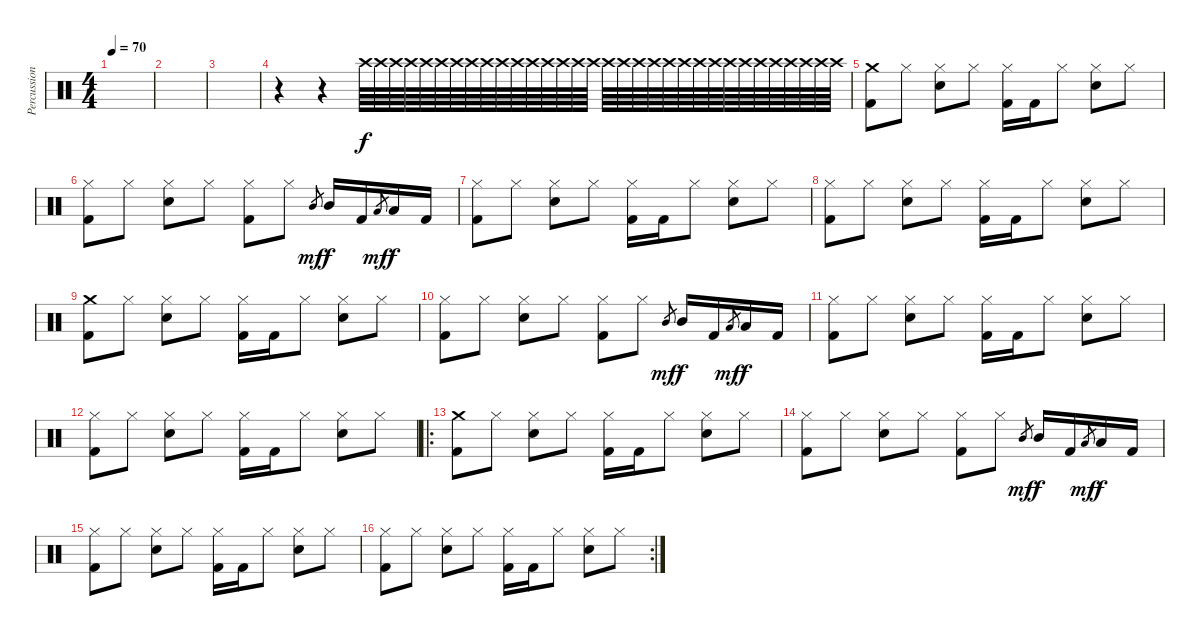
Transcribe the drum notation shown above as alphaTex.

\track ("Percussions" "Percussion") {instrument percussion}
\staff {score}
\articulation defaults
\ts (4 4)
\tempo 70
\clef neutral
\ks c
|
|
|
r.4 r.4 "Crash high (hit)".64 "Crash high (hit)".64 "Crash high (hit)".64 "Crash high (hit)".64 "Crash high (hit)".64 "Crash high (hit)".64 "Crash high (hit)".64 "Crash high (hit)".64 "Crash high (hit)".64 "Crash high (hit)".64 "Crash high (hit)".64 "Crash high (hit)".64 "Crash high (hit)".64 "Crash high (hit)".64 "Crash high (hit)".64 "Crash high (hit)".64 "Crash high (hit)".64 "Crash high (hit)".64 "Crash high (hit)".64 "Crash high (hit)".64 "Crash high (hit)".64 "Crash high (hit)".64 "Crash high (hit)".64 "Crash high (hit)".64 "Crash high (hit)".64 "Crash high (hit)".64 "Crash high (hit)".64 "Crash high (hit)".64 "Crash high (hit)".64 "Crash high (hit)".64 "Crash high (hit)".64 "Crash high (hit)".64 |
("Crash medium (hit)" "Kick (hit) 2").8 "Hi-Hat (closed)".8 ("Hi-Hat (closed)" "Snare (hit) 2").8 "Hi-Hat (closed)".8 ("Hi-Hat (closed)" "Kick (hit) 2").16 "Kick (hit) 2".16 "Hi-Hat (closed)".8 ("Hi-Hat (closed)" "Snare (hit) 2").8 "Hi-Hat (closed)".8 |
("Hi-Hat (closed)" "Kick (hit) 2").8 "Hi-Hat (closed)".8 ("Hi-Hat (closed)" "Snare (hit) 2").8 "Hi-Hat (closed)".8 ("Hi-Hat (closed)" "Kick (hit) 2").8 "Hi-Hat (closed)".8 "Mid Tom (hit)".8{gr dy mf} "Mid Tom (hit)".16{dy f} "Kick (hit) 2".16 "Low Tom (hit)".8{gr dy mf} "Low Tom (hit)".16{dy f} "Kick (hit) 2".16 |
("Hi-Hat (closed)" "Kick (hit) 2").8 "Hi-Hat (closed)".8 ("Hi-Hat (closed)" "Snare (hit) 2").8 "Hi-Hat (closed)".8 ("Hi-Hat (closed)" "Kick (hit) 2").16 "Kick (hit) 2".16 "Hi-Hat (closed)".8 ("Hi-Hat (closed)" "Snare (hit) 2").8 "Hi-Hat (closed)".8 |
("Hi-Hat (closed)" "Kick (hit) 2").8 "Hi-Hat (closed)".8 ("Hi-Hat (closed)" "Snare (hit) 2").8 "Hi-Hat (closed)".8 ("Hi-Hat (closed)" "Kick (hit) 2").16 "Kick (hit) 2".16 "Hi-Hat (closed)".8 ("Hi-Hat (closed)" "Snare (hit) 2").8 "Hi-Hat (closed)".8 |
("Crash medium (hit)" "Kick (hit) 2").8 "Hi-Hat (closed)".8 ("Hi-Hat (closed)" "Snare (hit) 2").8 "Hi-Hat (closed)".8 ("Hi-Hat (closed)" "Kick (hit) 2").16 "Kick (hit) 2".16 "Hi-Hat (closed)".8 ("Hi-Hat (closed)" "Snare (hit) 2").8 "Hi-Hat (closed)".8 |
("Hi-Hat (closed)" "Kick (hit) 2").8 "Hi-Hat (closed)".8 ("Hi-Hat (closed)" "Snare (hit) 2").8 "Hi-Hat (closed)".8 ("Hi-Hat (closed)" "Kick (hit) 2").8 "Hi-Hat (closed)".8 "Mid Tom (hit)".8{gr dy mf} "Mid Tom (hit)".16{dy f} "Kick (hit) 2".16 "Low Tom (hit)".8{gr dy mf} "Low Tom (hit)".16{dy f} "Kick (hit) 2".16 |
("Hi-Hat (closed)" "Kick (hit) 2").8 "Hi-Hat (closed)".8 ("Hi-Hat (closed)" "Snare (hit) 2").8 "Hi-Hat (closed)".8 ("Hi-Hat (closed)" "Kick (hit) 2").16 "Kick (hit) 2".16 "Hi-Hat (closed)".8 ("Hi-Hat (closed)" "Snare (hit) 2").8 "Hi-Hat (closed)".8 |
("Hi-Hat (closed)" "Kick (hit) 2").8 "Hi-Hat (closed)".8 ("Hi-Hat (closed)" "Snare (hit) 2").8 "Hi-Hat (closed)".8 ("Hi-Hat (closed)" "Kick (hit) 2").16 "Kick (hit) 2".16 "Hi-Hat (closed)".8 ("Hi-Hat (closed)" "Snare (hit) 2").8 "Hi-Hat (closed)".8 |
\ro
("Crash medium (hit)" "Kick (hit) 2").8 "Hi-Hat (closed)".8 ("Hi-Hat (closed)" "Snare (hit) 2").8 "Hi-Hat (closed)".8 ("Hi-Hat (closed)" "Kick (hit) 2").16 "Kick (hit) 2".16 "Hi-Hat (closed)".8 ("Hi-Hat (closed)" "Snare (hit) 2").8 "Hi-Hat (closed)".8 |
("Hi-Hat (closed)" "Kick (hit) 2").8 "Hi-Hat (closed)".8 ("Hi-Hat (closed)" "Snare (hit) 2").8 "Hi-Hat (closed)".8 ("Hi-Hat (closed)" "Kick (hit) 2").8 "Hi-Hat (closed)".8 "Mid Tom (hit)".8{gr dy mf} "Mid Tom (hit)".16{dy f} "Kick (hit) 2".16 "Low Tom (hit)".8{gr dy mf} "Low Tom (hit)".16{dy f} "Kick (hit) 2".16 |
("Hi-Hat (closed)" "Kick (hit) 2").8 "Hi-Hat (closed)".8 ("Hi-Hat (closed)" "Snare (hit) 2").8 "Hi-Hat (closed)".8 ("Hi-Hat (closed)" "Kick (hit) 2").16 "Kick (hit) 2".16 "Hi-Hat (closed)".8 ("Hi-Hat (closed)" "Snare (hit) 2").8 "Hi-Hat (closed)".8 |
\rc 2
("Hi-Hat (closed)" "Kick (hit) 2").8 "Hi-Hat (closed)".8 ("Hi-Hat (closed)" "Snare (hit) 2").8 "Hi-Hat (closed)".8 ("Hi-Hat (closed)" "Kick (hit) 2").16 "Kick (hit) 2".16 "Hi-Hat (closed)".8 ("Hi-Hat (closed)" "Snare (hit) 2").8 "Hi-Hat (closed)".8
